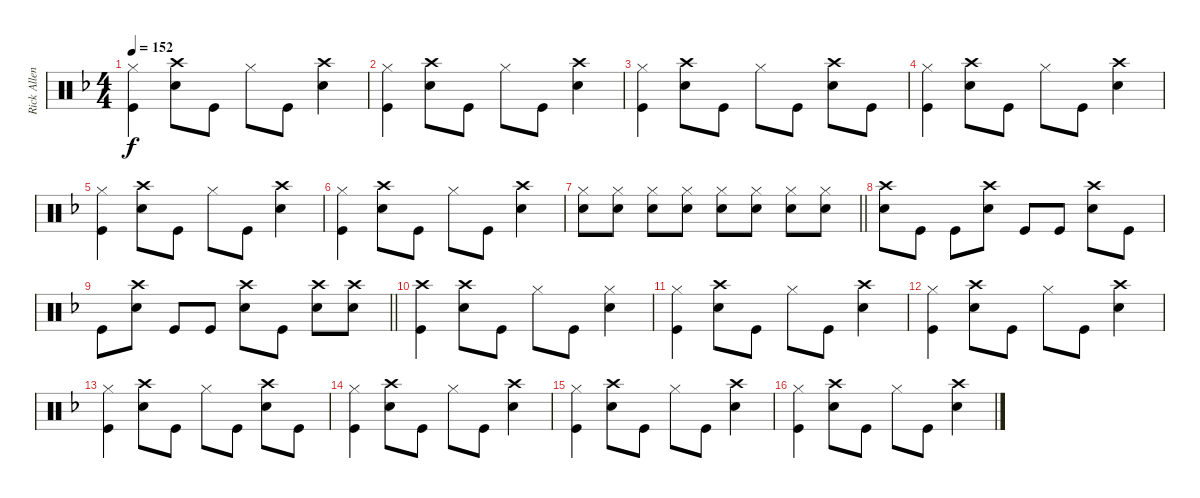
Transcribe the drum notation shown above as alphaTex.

\track ("Rick Allen" "Rick Allen") {instrument percussion}
\staff {score}
\articulation defaults
\ts (4 4)
\tempo 152
\clef neutral
\ks dminor
("Hi-Hat (closed)" "Kick (hit)").4{dy f} ("Crash high (hit)" "Snare (hit) 2").8 "Kick (hit)".8 "Hi-Hat (closed)".8 "Kick (hit)".8 ("Crash high (hit)" "Snare (hit) 2").4 |
("Hi-Hat (closed)" "Kick (hit)").4 ("Crash high (hit)" "Snare (hit) 2").8 "Kick (hit)".8 "Hi-Hat (closed)".8 "Kick (hit)".8 ("Crash high (hit)" "Snare (hit) 2").4 |
("Hi-Hat (closed)" "Kick (hit)").4 ("Crash high (hit)" "Snare (hit) 2").8 "Kick (hit)".8 "Hi-Hat (closed)".8 "Kick (hit)".8 ("Crash high (hit)" "Snare (hit) 2").8 "Kick (hit)".8 |
("Hi-Hat (closed)" "Kick (hit)").4 ("Crash high (hit)" "Snare (hit) 2").8 "Kick (hit)".8 "Hi-Hat (closed)".8 "Kick (hit)".8 ("Crash high (hit)" "Snare (hit) 2").4 |
("Hi-Hat (closed)" "Kick (hit)").4 ("Crash high (hit)" "Snare (hit) 2").8 "Kick (hit)".8 "Hi-Hat (closed)".8 "Kick (hit)".8 ("Crash high (hit)" "Snare (hit) 2").4 |
("Hi-Hat (closed)" "Kick (hit)").4 ("Crash high (hit)" "Snare (hit) 2").8 "Kick (hit)".8 "Hi-Hat (closed)".8 "Kick (hit)".8 ("Crash high (hit)" "Snare (hit) 2").4 |
\barLineRight lightlight
("Hi-Hat (closed)" "Snare (hit) 2").8 ("Hi-Hat (closed)" "Snare (hit) 2").8 ("Hi-Hat (closed)" "Snare (hit) 2").8 ("Hi-Hat (closed)" "Snare (hit) 2").8 ("Hi-Hat (closed)" "Snare (hit) 2").8 ("Hi-Hat (closed)" "Snare (hit) 2").8 ("Hi-Hat (closed)" "Snare (hit) 2").8 ("Hi-Hat (closed)" "Snare (hit) 2").8 |
("Crash high (hit)" "Snare (hit) 2").8 "Kick (hit)".8 "Kick (hit)".8 ("Crash high (hit)" "Snare (hit) 2").8 "Kick (hit)".8 "Kick (hit)".8 ("Crash high (hit)" "Snare (hit) 2").8 "Kick (hit)".8 |
\barLineRight lightlight "Kick (hit)".8
("Crash high (hit)" "Snare (hit) 2").8 "Kick (hit)".8 "Kick (hit)".8 ("Crash high (hit)" "Snare (hit) 2").8 "Kick (hit)".8 ("Crash high (hit)" "Snare (hit) 2").8 ("Crash high (hit)" "Snare (hit) 2").8 |
("Crash high (hit)" "Kick (hit)").4 ("Crash high (hit)" "Snare (hit) 2").8 "Kick (hit)".8 "Hi-Hat (closed)".8 "Kick (hit)".8 ("Hi-Hat (closed)" "Snare (hit) 2").4 |
("Hi-Hat (closed)" "Kick (hit)").4 ("Crash high (hit)" "Snare (hit) 2").8 "Kick (hit)".8 "Hi-Hat (closed)".8 "Kick (hit)".8 ("Crash high (hit)" "Snare (hit) 2").4 |
("Hi-Hat (closed)" "Kick (hit)").4 ("Crash high (hit)" "Snare (hit) 2").8 "Kick (hit)".8 "Hi-Hat (closed)".8 "Kick (hit)".8 ("Crash high (hit)" "Snare (hit) 2").4 |
("Hi-Hat (closed)" "Kick (hit)").4 ("Crash high (hit)" "Snare (hit) 2").8 "Kick (hit)".8 "Hi-Hat (closed)".8 "Kick (hit)".8 ("Crash high (hit)" "Snare (hit) 2").8 "Kick (hit)".8 |
("Hi-Hat (closed)" "Kick (hit)").4 ("Crash high (hit)" "Snare (hit) 2").8 "Kick (hit)".8 "Hi-Hat (closed)".8 "Kick (hit)".8 ("Crash high (hit)" "Snare (hit) 2").4 |
("Hi-Hat (closed)" "Kick (hit)").4 ("Crash high (hit)" "Snare (hit) 2").8 "Kick (hit)".8 "Hi-Hat (closed)".8 "Kick (hit)".8 ("Crash high (hit)" "Snare (hit) 2").4 |
("Hi-Hat (closed)" "Kick (hit)").4 ("Crash high (hit)" "Snare (hit) 2").8 "Kick (hit)".8 "Hi-Hat (closed)".8 "Kick (hit)".8 ("Crash high (hit)" "Snare (hit) 2").4
